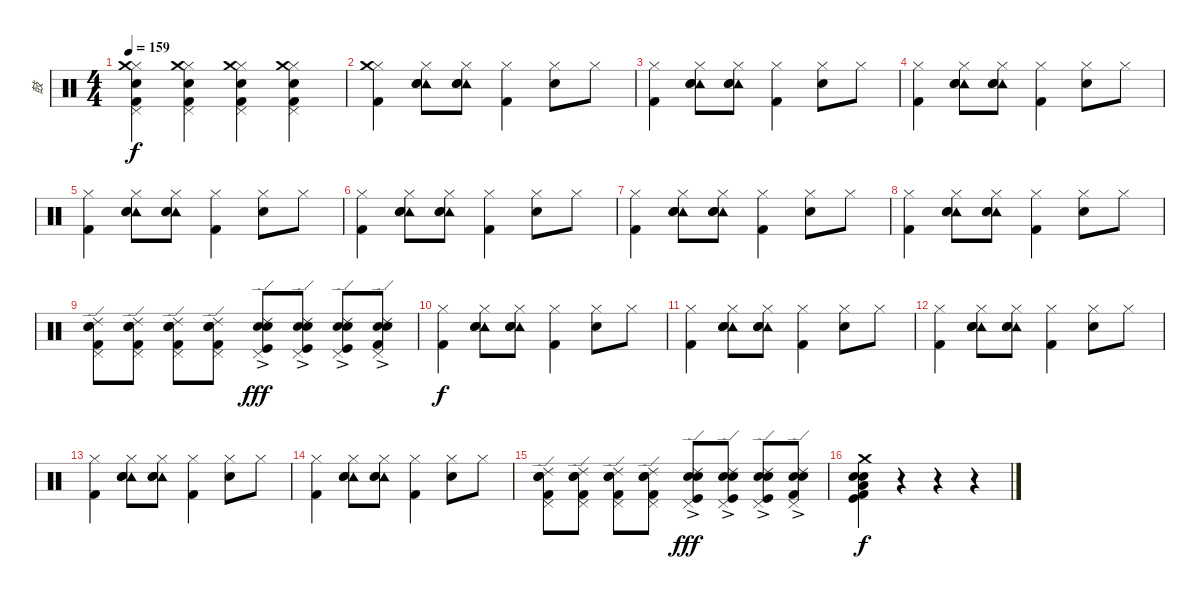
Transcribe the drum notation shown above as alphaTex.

\track ("鼓" "鼓") {instrument percussion}
\staff {score}
\articulation defaults
\ts (4 4)
\tempo 159
\clef neutral
\ks c
("Hi-Hat (closed)" "Snare (hit) 2" "Kick (hit) 2" "Crash medium (hit)" "Pedal Hi-Hat (hit)").4{dy f} ("Hi-Hat (closed)" "Snare (hit) 2" "Kick (hit) 2" "Crash medium (hit)" "Pedal Hi-Hat (hit)").4 ("Hi-Hat (closed)" "Snare (hit) 2" "Kick (hit) 2" "Crash medium (hit)" "Pedal Hi-Hat (hit)").4 ("Hi-Hat (closed)" "Snare (hit) 2" "Kick (hit) 2" "Crash medium (hit)" "Pedal Hi-Hat (hit)").4 |
("Hi-Hat (closed)" "Crash medium (hit)" "Kick (hit) 2").4 ("Hi-Hat (closed)" "Tambourine (hit)" "Snare (hit) 2" "Metronome (bell)").8 ("Hi-Hat (closed)" "Tambourine (hit)" "Snare (hit) 2" "Metronome (bell)").8 ("Hi-Hat (closed)" "Kick (hit) 2").4 ("Hi-Hat (closed)" "Snare (hit) 2").8 "Hi-Hat (closed)".8 |
("Hi-Hat (closed)" "Kick (hit) 2").4 ("Hi-Hat (closed)" "Tambourine (hit)" "Snare (hit) 2" "Metronome (bell)").8 ("Hi-Hat (closed)" "Tambourine (hit)" "Snare (hit) 2" "Metronome (bell)").8 ("Hi-Hat (closed)" "Kick (hit) 2").4 ("Hi-Hat (closed)" "Snare (hit) 2").8 "Hi-Hat (closed)".8 |
("Hi-Hat (closed)" "Kick (hit) 2").4 ("Hi-Hat (closed)" "Tambourine (hit)" "Snare (hit) 2" "Metronome (bell)").8 ("Hi-Hat (closed)" "Tambourine (hit)" "Snare (hit) 2" "Metronome (bell)").8 ("Hi-Hat (closed)" "Kick (hit) 2").4 ("Hi-Hat (closed)" "Snare (hit) 2").8 "Hi-Hat (closed)".8 |
("Hi-Hat (closed)" "Kick (hit) 2").4 ("Hi-Hat (closed)" "Tambourine (hit)" "Snare (hit) 2" "Metronome (bell)").8 ("Hi-Hat (closed)" "Tambourine (hit)" "Snare (hit) 2" "Metronome (bell)").8 ("Hi-Hat (closed)" "Kick (hit) 2").4 ("Hi-Hat (closed)" "Snare (hit) 2").8 "Hi-Hat (closed)".8 |
("Hi-Hat (closed)" "Kick (hit) 2").4 ("Hi-Hat (closed)" "Tambourine (hit)" "Snare (hit) 2" "Metronome (bell)").8 ("Hi-Hat (closed)" "Tambourine (hit)" "Snare (hit) 2" "Metronome (bell)").8 ("Hi-Hat (closed)" "Kick (hit) 2").4 ("Hi-Hat (closed)" "Snare (hit) 2").8 "Hi-Hat (closed)".8 |
("Hi-Hat (closed)" "Kick (hit) 2").4 ("Hi-Hat (closed)" "Tambourine (hit)" "Snare (hit) 2" "Metronome (bell)").8 ("Hi-Hat (closed)" "Tambourine (hit)" "Snare (hit) 2" "Metronome (bell)").8 ("Hi-Hat (closed)" "Kick (hit) 2").4 ("Hi-Hat (closed)" "Snare (hit) 2").8 "Hi-Hat (closed)".8 |
("Hi-Hat (closed)" "Kick (hit) 2").4 ("Hi-Hat (closed)" "Tambourine (hit)" "Snare (hit) 2" "Metronome (bell)").8 ("Hi-Hat (closed)" "Tambourine (hit)" "Snare (hit) 2" "Metronome (bell)").8 ("Hi-Hat (closed)" "Kick (hit) 2").4 ("Hi-Hat (closed)" "Snare (hit) 2").8 "Hi-Hat (closed)".8 |
("Pedal Hi-Hat (hit)" "Snare (hit) 2" "Electric Snare (hit)" "Kick (hit) 2" "Ride (edge) 2").8 ("Pedal Hi-Hat (hit)" "Snare (hit) 2" "Electric Snare (hit)" "Kick (hit) 2" "Ride (edge) 2").8 ("Pedal Hi-Hat (hit)" "Snare (hit) 2" "Electric Snare (hit)" "Kick (hit) 2" "Ride (edge) 2").8 ("Pedal Hi-Hat (hit)" "Snare (hit) 2" "Electric Snare (hit)" "Kick (hit) 2" "Ride (edge) 2").8 ("Pedal Hi-Hat (hit)"{ac} "Snare (hit) 2" "Electric Snare (hit)" "Kick (hit)" "Ride (edge) 2").8{dy fff} ("Pedal Hi-Hat (hit)"{ac} "Snare (hit) 2" "Electric Snare (hit)" "Kick (hit)" "Ride (edge) 2").8 ("Pedal Hi-Hat (hit)"{ac} "Snare (hit) 2" "Electric Snare (hit)" "Kick (hit)" "Ride (edge) 2").8 ("Pedal Hi-Hat (hit)"{ac} "Snare (hit) 2" "Electric Snare (hit)" "Kick (hit) 2" "Ride (edge) 2").8 |
("Hi-Hat (closed)" "Kick (hit) 2").4{dy f} ("Hi-Hat (closed)" "Tambourine (hit)" "Snare (hit) 2" "Metronome (bell)").8 ("Hi-Hat (closed)" "Tambourine (hit)" "Snare (hit) 2" "Metronome (bell)").8 ("Hi-Hat (closed)" "Kick (hit) 2").4 ("Hi-Hat (closed)" "Snare (hit) 2").8 "Hi-Hat (closed)".8 |
("Hi-Hat (closed)" "Kick (hit) 2").4 ("Hi-Hat (closed)" "Tambourine (hit)" "Snare (hit) 2" "Metronome (bell)").8 ("Hi-Hat (closed)" "Tambourine (hit)" "Snare (hit) 2" "Metronome (bell)").8 ("Hi-Hat (closed)" "Kick (hit) 2").4 ("Hi-Hat (closed)" "Snare (hit) 2").8 "Hi-Hat (closed)".8 |
("Hi-Hat (closed)" "Kick (hit) 2").4 ("Hi-Hat (closed)" "Tambourine (hit)" "Snare (hit) 2" "Metronome (bell)").8 ("Hi-Hat (closed)" "Tambourine (hit)" "Snare (hit) 2" "Metronome (bell)").8 ("Hi-Hat (closed)" "Kick (hit) 2").4 ("Hi-Hat (closed)" "Snare (hit) 2").8 "Hi-Hat (closed)".8 |
("Hi-Hat (closed)" "Kick (hit) 2").4 ("Hi-Hat (closed)" "Tambourine (hit)" "Snare (hit) 2" "Metronome (bell)").8 ("Hi-Hat (closed)" "Tambourine (hit)" "Snare (hit) 2" "Metronome (bell)").8 ("Hi-Hat (closed)" "Kick (hit) 2").4 ("Hi-Hat (closed)" "Snare (hit) 2").8 "Hi-Hat (closed)".8 |
("Hi-Hat (closed)" "Kick (hit) 2").4 ("Hi-Hat (closed)" "Tambourine (hit)" "Snare (hit) 2" "Metronome (bell)").8 ("Hi-Hat (closed)" "Tambourine (hit)" "Snare (hit) 2" "Metronome (bell)").8 ("Hi-Hat (closed)" "Kick (hit) 2").4 ("Hi-Hat (closed)" "Snare (hit) 2").8 "Hi-Hat (closed)".8 |
("Pedal Hi-Hat (hit)" "Snare (hit) 2" "Electric Snare (hit)" "Kick (hit) 2" "Ride (edge) 2").8 ("Pedal Hi-Hat (hit)" "Snare (hit) 2" "Electric Snare (hit)" "Kick (hit) 2" "Ride (edge) 2").8 ("Pedal Hi-Hat (hit)" "Snare (hit) 2" "Electric Snare (hit)" "Kick (hit) 2" "Ride (edge) 2").8 ("Pedal Hi-Hat (hit)" "Snare (hit) 2" "Electric Snare (hit)" "Kick (hit) 2" "Ride (edge) 2").8 ("Pedal Hi-Hat (hit)"{ac} "Snare (hit) 2" "Electric Snare (hit)" "Kick (hit)" "Ride (edge) 2").8{dy fff} ("Pedal Hi-Hat (hit)"{ac} "Snare (hit) 2" "Electric Snare (hit)" "Kick (hit)" "Ride (edge) 2").8 ("Pedal Hi-Hat (hit)"{ac} "Snare (hit) 2" "Electric Snare (hit)" "Kick (hit)" "Ride (edge) 2").8 ("Pedal Hi-Hat (hit)"{ac} "Snare (hit) 2" "Electric Snare (hit)" "Kick (hit) 2" "Ride (edge) 2").8 |
("Kick (hit)" "Crash medium (hit)" "Electric Snare (hit)" "Kick (hit) 2" "Snare (hit) 2" "Low Floor Tom (hit)").4{dy f} r.4 r.4 r.4
